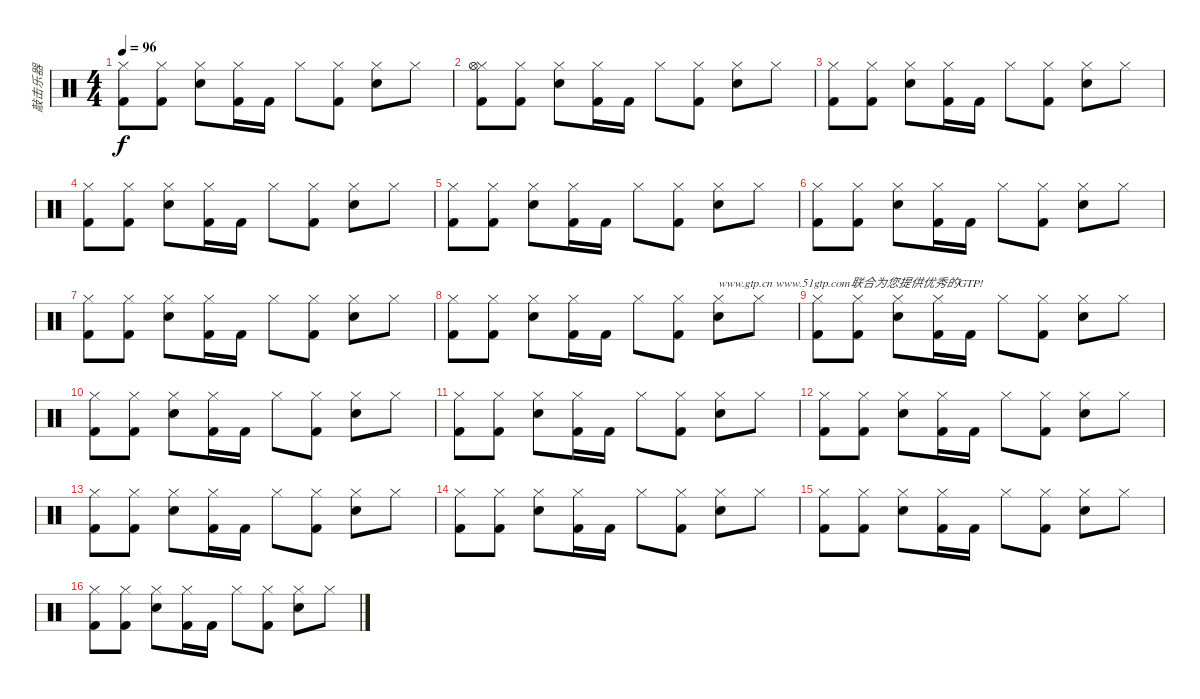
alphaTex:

\track ("敲击乐器" "敲击乐器") {instrument percussion}
\staff {score}
\articulation defaults
\ts (4 4)
\tempo 96
\clef neutral
\ks c
("Hi-Hat (closed)" "Kick (hit) 2").8{dy f} ("Hi-Hat (closed)" "Kick (hit) 2").8 ("Hi-Hat (closed)" "Electric Snare (hit)").8 ("Hi-Hat (closed)" "Kick (hit) 2").16 "Kick (hit) 2".16 "Hi-Hat (closed)".8 ("Hi-Hat (closed)" "Kick (hit) 2").8 ("Hi-Hat (closed)" "Electric Snare (hit)").8 "Hi-Hat (closed)".8 |
("Hi-Hat (closed)" "Hi-Hat (open)" "Kick (hit) 2").8 ("Hi-Hat (closed)" "Kick (hit) 2").8 ("Hi-Hat (closed)" "Electric Snare (hit)").8 ("Hi-Hat (closed)" "Kick (hit) 2").16 "Kick (hit) 2".16 "Hi-Hat (closed)".8 ("Hi-Hat (closed)" "Kick (hit) 2").8 ("Hi-Hat (closed)" "Electric Snare (hit)").8 "Hi-Hat (closed)".8 |
("Hi-Hat (closed)" "Kick (hit) 2").8 ("Hi-Hat (closed)" "Kick (hit) 2").8 ("Hi-Hat (closed)" "Electric Snare (hit)").8 ("Hi-Hat (closed)" "Kick (hit) 2").16 "Kick (hit) 2".16 "Hi-Hat (closed)".8 ("Hi-Hat (closed)" "Kick (hit) 2").8 ("Hi-Hat (closed)" "Electric Snare (hit)").8 "Hi-Hat (closed)".8 |
("Hi-Hat (closed)" "Kick (hit) 2").8 ("Hi-Hat (closed)" "Kick (hit) 2").8 ("Hi-Hat (closed)" "Electric Snare (hit)").8 ("Hi-Hat (closed)" "Kick (hit) 2").16 "Kick (hit) 2".16 "Hi-Hat (closed)".8 ("Hi-Hat (closed)" "Kick (hit) 2").8 ("Hi-Hat (closed)" "Electric Snare (hit)").8 "Hi-Hat (closed)".8 |
("Hi-Hat (closed)" "Kick (hit) 2").8 ("Hi-Hat (closed)" "Kick (hit) 2").8 ("Hi-Hat (closed)" "Electric Snare (hit)").8 ("Hi-Hat (closed)" "Kick (hit) 2").16 "Kick (hit) 2".16 "Hi-Hat (closed)".8 ("Hi-Hat (closed)" "Kick (hit) 2").8 ("Hi-Hat (closed)" "Electric Snare (hit)").8 "Hi-Hat (closed)".8 |
("Hi-Hat (closed)" "Kick (hit) 2").8 ("Hi-Hat (closed)" "Kick (hit) 2").8 ("Hi-Hat (closed)" "Electric Snare (hit)").8 ("Hi-Hat (closed)" "Kick (hit) 2").16 "Kick (hit) 2".16 "Hi-Hat (closed)".8 ("Hi-Hat (closed)" "Kick (hit) 2").8 ("Hi-Hat (closed)" "Electric Snare (hit)").8 "Hi-Hat (closed)".8 |
("Hi-Hat (closed)" "Kick (hit) 2").8 ("Hi-Hat (closed)" "Kick (hit) 2").8 ("Hi-Hat (closed)" "Electric Snare (hit)").8 ("Hi-Hat (closed)" "Kick (hit) 2").16 "Kick (hit) 2".16 "Hi-Hat (closed)".8 ("Hi-Hat (closed)" "Kick (hit) 2").8 ("Hi-Hat (closed)" "Electric Snare (hit)").8 "Hi-Hat (closed)".8 |
("Hi-Hat (closed)" "Kick (hit) 2").8 ("Hi-Hat (closed)" "Kick (hit) 2").8 ("Hi-Hat (closed)" "Electric Snare (hit)").8 ("Hi-Hat (closed)" "Kick (hit) 2").16 "Kick (hit) 2".16 "Hi-Hat (closed)".8 ("Hi-Hat (closed)" "Kick (hit) 2").8 ("Hi-Hat (closed)" "Electric Snare (hit)").8{txt "www.gtp.cn www.51gtp.com联合为您提供优秀的GTP!"} "Hi-Hat (closed)".8 |
("Hi-Hat (closed)" "Kick (hit) 2").8 ("Hi-Hat (closed)" "Kick (hit) 2").8 ("Hi-Hat (closed)" "Electric Snare (hit)").8 ("Hi-Hat (closed)" "Kick (hit) 2").16 "Kick (hit) 2".16 "Hi-Hat (closed)".8 ("Hi-Hat (closed)" "Kick (hit) 2").8 ("Hi-Hat (closed)" "Electric Snare (hit)").8 "Hi-Hat (closed)".8 |
("Hi-Hat (closed)" "Kick (hit) 2").8 ("Hi-Hat (closed)" "Kick (hit) 2").8 ("Hi-Hat (closed)" "Electric Snare (hit)").8 ("Hi-Hat (closed)" "Kick (hit) 2").16 "Kick (hit) 2".16 "Hi-Hat (closed)".8 ("Hi-Hat (closed)" "Kick (hit) 2").8 ("Hi-Hat (closed)" "Electric Snare (hit)").8 "Hi-Hat (closed)".8 |
("Hi-Hat (closed)" "Kick (hit) 2").8 ("Hi-Hat (closed)" "Kick (hit) 2").8 ("Hi-Hat (closed)" "Electric Snare (hit)").8 ("Hi-Hat (closed)" "Kick (hit) 2").16 "Kick (hit) 2".16 "Hi-Hat (closed)".8 ("Hi-Hat (closed)" "Kick (hit) 2").8 ("Hi-Hat (closed)" "Electric Snare (hit)").8 "Hi-Hat (closed)".8 |
("Hi-Hat (closed)" "Kick (hit) 2").8 ("Hi-Hat (closed)" "Kick (hit) 2").8 ("Hi-Hat (closed)" "Electric Snare (hit)").8 ("Hi-Hat (closed)" "Kick (hit) 2").16 "Kick (hit) 2".16 "Hi-Hat (closed)".8 ("Hi-Hat (closed)" "Kick (hit) 2").8 ("Hi-Hat (closed)" "Electric Snare (hit)").8 "Hi-Hat (closed)".8 |
("Hi-Hat (closed)" "Kick (hit) 2").8 ("Hi-Hat (closed)" "Kick (hit) 2").8 ("Hi-Hat (closed)" "Electric Snare (hit)").8 ("Hi-Hat (closed)" "Kick (hit) 2").16 "Kick (hit) 2".16 "Hi-Hat (closed)".8 ("Hi-Hat (closed)" "Kick (hit) 2").8 ("Hi-Hat (closed)" "Electric Snare (hit)").8 "Hi-Hat (closed)".8 |
("Hi-Hat (closed)" "Kick (hit) 2").8 ("Hi-Hat (closed)" "Kick (hit) 2").8 ("Hi-Hat (closed)" "Electric Snare (hit)").8 ("Hi-Hat (closed)" "Kick (hit) 2").16 "Kick (hit) 2".16 "Hi-Hat (closed)".8 ("Hi-Hat (closed)" "Kick (hit) 2").8 ("Hi-Hat (closed)" "Electric Snare (hit)").8 "Hi-Hat (closed)".8 |
("Hi-Hat (closed)" "Kick (hit) 2").8 ("Hi-Hat (closed)" "Kick (hit) 2").8 ("Hi-Hat (closed)" "Electric Snare (hit)").8 ("Hi-Hat (closed)" "Kick (hit) 2").16 "Kick (hit) 2".16 "Hi-Hat (closed)".8 ("Hi-Hat (closed)" "Kick (hit) 2").8 ("Hi-Hat (closed)" "Electric Snare (hit)").8 "Hi-Hat (closed)".8 |
("Hi-Hat (closed)" "Kick (hit) 2").8 ("Hi-Hat (closed)" "Kick (hit) 2").8 ("Hi-Hat (closed)" "Electric Snare (hit)").8 ("Hi-Hat (closed)" "Kick (hit) 2").16 "Kick (hit) 2".16 "Hi-Hat (closed)".8 ("Hi-Hat (closed)" "Kick (hit) 2").8 ("Hi-Hat (closed)" "Electric Snare (hit)").8 "Hi-Hat (closed)".8
